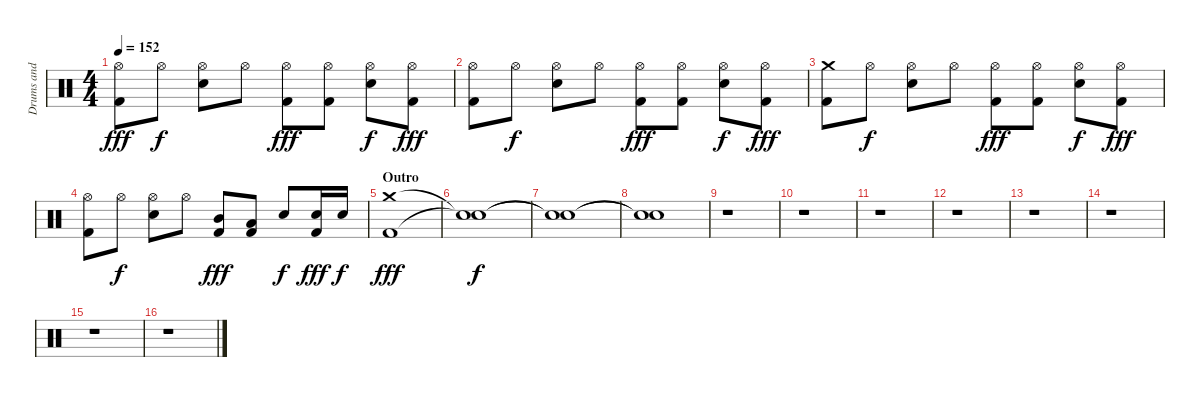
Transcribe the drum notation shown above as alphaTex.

\track ("Drums and Percussion" "Drums and ") {instrument percussion}
\staff {score}
\articulation defaults
\ts (4 4)
\tempo 152
\clef neutral
\ks c
("Hi-Hat (open)" "Kick (hit) 2").8{dy fff} "Hi-Hat (open)".8{dy f} ("Hi-Hat (open)" "Snare (hit) 2").8 "Hi-Hat (open)".8 ("Hi-Hat (open)" "Kick (hit) 2").8{dy fff} ("Hi-Hat (open)" "Kick (hit) 2").8 ("Hi-Hat (open)" "Snare (hit) 2").8{dy f} ("Hi-Hat (open)" "Kick (hit) 2").8{dy fff} |
("Hi-Hat (open)" "Kick (hit) 2").8 "Hi-Hat (open)".8{dy f} ("Hi-Hat (open)" "Snare (hit) 2").8 "Hi-Hat (open)".8 ("Hi-Hat (open)" "Kick (hit) 2").8{dy fff} ("Hi-Hat (open)" "Kick (hit) 2").8 ("Hi-Hat (open)" "Snare (hit) 2").8{dy f} ("Hi-Hat (open)" "Kick (hit) 2").8{dy fff} |
("Crash medium (hit)" "Kick (hit) 2").8 "Hi-Hat (open)".8{dy f} ("Hi-Hat (open)" "Snare (hit) 2").8 "Hi-Hat (open)".8 ("Hi-Hat (open)" "Kick (hit) 2").8{dy fff} ("Hi-Hat (open)" "Kick (hit) 2").8 ("Hi-Hat (open)" "Snare (hit) 2").8{dy f} ("Hi-Hat (open)" "Kick (hit) 2").8{dy fff} |
("Hi-Hat (open)" "Kick (hit) 2").8 "Hi-Hat (open)".8{dy f} ("Hi-Hat (open)" "Snare (hit) 2").8 "Hi-Hat (open)".8 ("Mid Tom (hit)" "Kick (hit) 2").8{dy fff} ("Low Tom (hit)" "Kick (hit) 2").8 "Snare (hit) 2".8{dy f} ("Snare (hit) 2" "Kick (hit) 2").16{dy fff} "Snare (hit) 2".16{dy f} |
\section ("" "Outro")
("Crash medium (hit)" "Kick (hit) 2").1{dy fff} |
("Snare (hit)"{t} "Snare (hit)"{t}).1{dy f} |
("Snare (hit)"{t} "Snare (hit)"{t}).1{volume 0} |
("Snare (hit)"{t} "Snare (hit)"{t}).1 |
r.1 |
r.1 |
r.1 |
r.1 |
r.1 |
r.1 |
r.1 |
r.1
